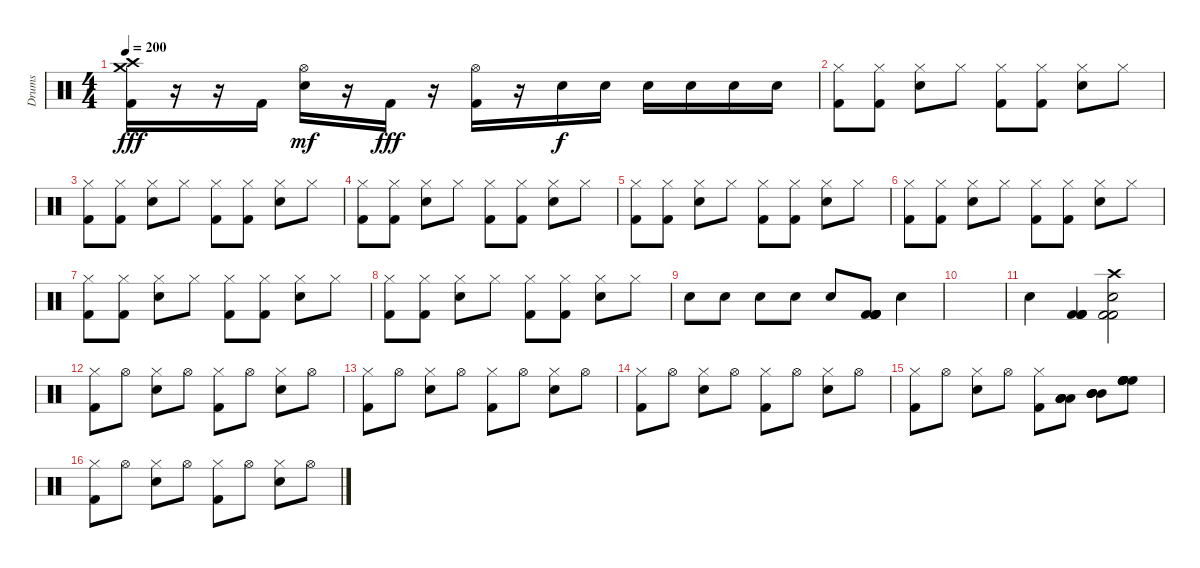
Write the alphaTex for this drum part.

\track ("Drums" "Drums") {instrument percussion}
\staff {score}
\articulation defaults
\ts (4 4)
\tempo 200
\clef neutral
\ks c
("Crash medium (hit)" "Crash high (hit)" "Kick (hit) 2").16{dy fff} r.16 r.16 "Kick (hit) 2".16 ("Hi-Hat (open)" "Snare (hit) 2").16{dy mf} r.16 "Kick (hit) 2".16{dy fff} r.16 ("Hi-Hat (open)" "Kick (hit) 2").16 r.16 "Snare (hit) 2".16{dy f} "Snare (hit) 2".16 "Snare (hit) 2".16 "Snare (hit) 2".16 "Snare (hit) 2".16 "Snare (hit) 2".16 |
("Hi-Hat (closed)" "Kick (hit) 2").8 ("Hi-Hat (closed)" "Kick (hit) 2").8 ("Hi-Hat (closed)" "Snare (hit) 2").8 "Hi-Hat (closed)".8 ("Hi-Hat (closed)" "Kick (hit) 2").8 ("Hi-Hat (closed)" "Kick (hit) 2").8 ("Hi-Hat (closed)" "Snare (hit) 2").8 "Hi-Hat (closed)".8 |
("Hi-Hat (closed)" "Kick (hit) 2").8 ("Hi-Hat (closed)" "Kick (hit) 2").8 ("Hi-Hat (closed)" "Snare (hit) 2").8 "Hi-Hat (closed)".8 ("Hi-Hat (closed)" "Kick (hit) 2").8 ("Hi-Hat (closed)" "Kick (hit) 2").8 ("Hi-Hat (closed)" "Snare (hit) 2").8 "Hi-Hat (closed)".8 |
("Hi-Hat (closed)" "Kick (hit) 2").8 ("Hi-Hat (closed)" "Kick (hit) 2").8 ("Hi-Hat (closed)" "Snare (hit) 2").8 "Hi-Hat (closed)".8 ("Hi-Hat (closed)" "Kick (hit) 2").8 ("Hi-Hat (closed)" "Kick (hit) 2").8 ("Hi-Hat (closed)" "Snare (hit) 2").8 "Hi-Hat (closed)".8 |
("Hi-Hat (closed)" "Kick (hit) 2").8 ("Hi-Hat (closed)" "Kick (hit) 2").8 ("Hi-Hat (closed)" "Snare (hit) 2").8 "Hi-Hat (closed)".8 ("Hi-Hat (closed)" "Kick (hit) 2").8 ("Hi-Hat (closed)" "Kick (hit) 2").8 ("Hi-Hat (closed)" "Snare (hit) 2").8 "Hi-Hat (closed)".8 |
("Hi-Hat (closed)" "Kick (hit) 2").8 ("Hi-Hat (closed)" "Kick (hit) 2").8 ("Hi-Hat (closed)" "Snare (hit) 2").8 "Hi-Hat (closed)".8 ("Hi-Hat (closed)" "Kick (hit) 2").8 ("Hi-Hat (closed)" "Kick (hit) 2").8 ("Hi-Hat (closed)" "Snare (hit) 2").8 "Hi-Hat (closed)".8 |
("Hi-Hat (closed)" "Kick (hit) 2").8 ("Hi-Hat (closed)" "Kick (hit) 2").8 ("Hi-Hat (closed)" "Snare (hit) 2").8 "Hi-Hat (closed)".8 ("Hi-Hat (closed)" "Kick (hit) 2").8 ("Hi-Hat (closed)" "Kick (hit) 2").8 ("Hi-Hat (closed)" "Snare (hit) 2").8 "Hi-Hat (closed)".8 |
("Hi-Hat (closed)" "Kick (hit) 2").8 ("Hi-Hat (closed)" "Kick (hit) 2").8 ("Hi-Hat (closed)" "Snare (hit) 2").8 "Hi-Hat (closed)".8 ("Hi-Hat (closed)" "Kick (hit) 2").8 ("Hi-Hat (closed)" "Kick (hit) 2").8 ("Hi-Hat (closed)" "Snare (hit) 2").8 "Hi-Hat (closed)".8 |
"Snare (hit) 2".8 "Snare (hit) 2".8 "Snare (hit) 2".8 "Snare (hit) 2".8 "Snare (hit) 2".8 ("Kick (hit) 2" "Kick (hit) 2" "Kick (hit) 2" "Kick (hit) 2" "Kick (hit) 2" "Kick (hit) 2").8 "Snare (hit) 2".4 |
|
"Snare (hit) 2".4 ("Kick (hit) 2" "Kick (hit) 2" "Kick (hit) 2" "Kick (hit) 2").4 ("Crash high (hit)" "Snare (hit) 2" "Kick (hit) 2" "Kick (hit) 2").2 |
("Hi-Hat (closed)" "Kick (hit) 2").8 "Hi-Hat (open)".8 ("Hi-Hat (closed)" "Snare (hit) 2").8 "Hi-Hat (open)".8 ("Hi-Hat (closed)" "Kick (hit) 2").8 "Hi-Hat (open)".8 ("Hi-Hat (closed)" "Snare (hit) 2").8 "Hi-Hat (open)".8 |
("Hi-Hat (closed)" "Kick (hit) 2").8 "Hi-Hat (open)".8 ("Hi-Hat (closed)" "Snare (hit) 2").8 "Hi-Hat (open)".8 ("Hi-Hat (closed)" "Kick (hit) 2").8 "Hi-Hat (open)".8 ("Hi-Hat (closed)" "Snare (hit) 2").8 "Hi-Hat (open)".8 |
("Hi-Hat (closed)" "Kick (hit) 2").8 "Hi-Hat (open)".8 ("Hi-Hat (closed)" "Snare (hit) 2").8 "Hi-Hat (open)".8 ("Hi-Hat (closed)" "Kick (hit) 2").8 "Hi-Hat (open)".8 ("Hi-Hat (closed)" "Snare (hit) 2").8 "Hi-Hat (open)".8 |
("Hi-Hat (closed)" "Kick (hit) 2").8 "Hi-Hat (open)".8 ("Hi-Hat (closed)" "Snare (hit) 2").8 "Hi-Hat (open)".8 ("Hi-Hat (closed)" "Kick (hit) 2").8 ("Low Tom (hit)" "Low Tom (hit)" "Low Tom (hit)" "Low Tom (hit)").8 ("Mid Tom (hit)" "Mid Tom (hit)" "Mid Tom (hit)" "Mid Tom (hit)").8 ("High Floor Tom (hit)" "High Floor Tom (hit)" "High Floor Tom (hit)" "High Floor Tom (hit)" "High Floor Tom (hit)" "High Floor Tom (hit)").8 |
("Hi-Hat (closed)" "Kick (hit) 2").8 "Hi-Hat (open)".8 ("Hi-Hat (closed)" "Snare (hit) 2").8 "Hi-Hat (open)".8 ("Hi-Hat (closed)" "Kick (hit) 2").8 "Hi-Hat (open)".8 ("Hi-Hat (closed)" "Snare (hit) 2").8 "Hi-Hat (open)".8
